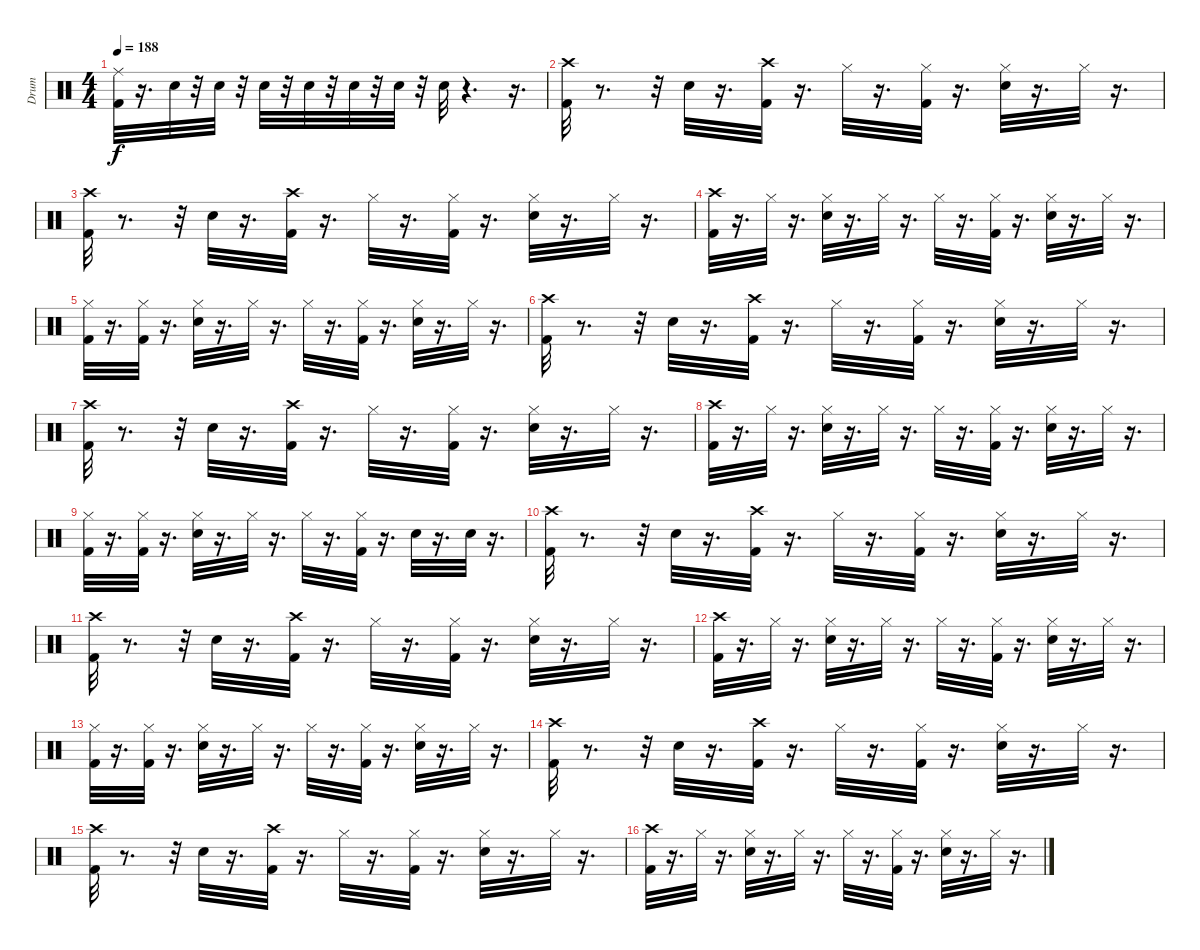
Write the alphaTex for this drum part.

\track ("Drum" "Drum") {instrument percussion}
\staff {score}
\articulation defaults
\ts (4 4)
\tempo 188
\clef neutral
\ks c
("Ride (middle)" "Kick (hit) 2").32{dy f} r.16{d} "Snare (hit) 2".32 r.32 "Snare (hit) 2".32 r.32 "Snare (hit) 2".32 r.32 "Snare (hit) 2".32 r.32 "Snare (hit) 2".32 r.32 "Snare (hit) 2".32 r.32 "Snare (hit) 2".32 r.4{d} r.16{d} |
("Crash high (hit)" "Kick (hit) 2").32 r.8{d} r.32 "Snare (hit) 2".32 r.16{d} ("Crash high (hit)" "Kick (hit) 2").32 r.16{d} "Hi-Hat (closed)".32 r.16{d} ("Hi-Hat (closed)" "Kick (hit) 2").32 r.16{d} ("Hi-Hat (closed)" "Snare (hit) 2").32 r.16{d} "Hi-Hat (closed)".32 r.16{d} |
("Crash high (hit)" "Kick (hit) 2").32 r.8{d} r.32 "Snare (hit) 2".32 r.16{d} ("Crash high (hit)" "Kick (hit) 2").32 r.16{d} "Hi-Hat (closed)".32 r.16{d} ("Hi-Hat (closed)" "Kick (hit) 2").32 r.16{d} ("Hi-Hat (closed)" "Snare (hit) 2").32 r.16{d} "Hi-Hat (closed)".32 r.16{d} |
("Crash high (hit)" "Kick (hit) 2").32 r.16{d} "Hi-Hat (closed)".32 r.16{d} ("Hi-Hat (closed)" "Snare (hit) 2").32 r.16{d} "Hi-Hat (closed)".32 r.16{d} "Hi-Hat (closed)".32 r.16{d} ("Hi-Hat (closed)" "Kick (hit) 2").32 r.16{d} ("Hi-Hat (closed)" "Snare (hit) 2").32 r.16{d} "Hi-Hat (closed)".32 r.16{d} |
("Hi-Hat (closed)" "Kick (hit) 2").32 r.16{d} ("Hi-Hat (closed)" "Kick (hit) 2").32 r.16{d} ("Hi-Hat (closed)" "Snare (hit) 2").32 r.16{d} "Hi-Hat (closed)".32 r.16{d} "Hi-Hat (closed)".32 r.16{d} ("Hi-Hat (closed)" "Kick (hit) 2").32 r.16{d} ("Hi-Hat (closed)" "Snare (hit) 2").32 r.16{d} "Hi-Hat (closed)".32 r.16{d} |
("Crash high (hit)" "Kick (hit) 2").32 r.8{d} r.32 "Snare (hit) 2".32 r.16{d} ("Crash high (hit)" "Kick (hit) 2").32 r.16{d} "Hi-Hat (closed)".32 r.16{d} ("Hi-Hat (closed)" "Kick (hit) 2").32 r.16{d} ("Hi-Hat (closed)" "Snare (hit) 2").32 r.16{d} "Hi-Hat (closed)".32 r.16{d} |
("Crash high (hit)" "Kick (hit) 2").32 r.8{d} r.32 "Snare (hit) 2".32 r.16{d} ("Crash high (hit)" "Kick (hit) 2").32 r.16{d} "Hi-Hat (closed)".32 r.16{d} ("Hi-Hat (closed)" "Kick (hit) 2").32 r.16{d} ("Hi-Hat (closed)" "Snare (hit) 2").32 r.16{d} "Hi-Hat (closed)".32 r.16{d} |
("Crash high (hit)" "Kick (hit) 2").32 r.16{d} "Hi-Hat (closed)".32 r.16{d} ("Hi-Hat (closed)" "Snare (hit) 2").32 r.16{d} "Hi-Hat (closed)".32 r.16{d} "Hi-Hat (closed)".32 r.16{d} ("Hi-Hat (closed)" "Kick (hit) 2").32 r.16{d} ("Hi-Hat (closed)" "Snare (hit) 2").32 r.16{d} "Hi-Hat (closed)".32 r.16{d} |
("Hi-Hat (closed)" "Kick (hit) 2").32 r.16{d} ("Hi-Hat (closed)" "Kick (hit) 2").32 r.16{d} ("Hi-Hat (closed)" "Snare (hit) 2").32 r.16{d} "Hi-Hat (closed)".32 r.16{d} "Hi-Hat (closed)".32 r.16{d} ("Hi-Hat (closed)" "Kick (hit) 2").32 r.16{d} "Snare (hit) 2".32 r.16{d} "Snare (hit) 2".32 r.16{d} |
("Crash high (hit)" "Kick (hit) 2").32 r.8{d} r.32 "Snare (hit) 2".32 r.16{d} ("Crash high (hit)" "Kick (hit) 2").32 r.16{d} "Hi-Hat (closed)".32 r.16{d} ("Hi-Hat (closed)" "Kick (hit) 2").32 r.16{d} ("Hi-Hat (closed)" "Snare (hit) 2").32 r.16{d} "Hi-Hat (closed)".32 r.16{d} |
("Crash high (hit)" "Kick (hit) 2").32 r.8{d} r.32 "Snare (hit) 2".32 r.16{d} ("Crash high (hit)" "Kick (hit) 2").32 r.16{d} "Hi-Hat (closed)".32 r.16{d} ("Hi-Hat (closed)" "Kick (hit) 2").32 r.16{d} ("Hi-Hat (closed)" "Snare (hit) 2").32 r.16{d} "Hi-Hat (closed)".32 r.16{d} |
("Crash high (hit)" "Kick (hit) 2").32 r.16{d} "Hi-Hat (closed)".32 r.16{d} ("Hi-Hat (closed)" "Snare (hit) 2").32 r.16{d} "Hi-Hat (closed)".32 r.16{d} "Hi-Hat (closed)".32 r.16{d} ("Hi-Hat (closed)" "Kick (hit) 2").32 r.16{d} ("Hi-Hat (closed)" "Snare (hit) 2").32 r.16{d} "Hi-Hat (closed)".32 r.16{d} |
("Hi-Hat (closed)" "Kick (hit) 2").32 r.16{d} ("Hi-Hat (closed)" "Kick (hit) 2").32 r.16{d} ("Hi-Hat (closed)" "Snare (hit) 2").32 r.16{d} "Hi-Hat (closed)".32 r.16{d} "Hi-Hat (closed)".32 r.16{d} ("Hi-Hat (closed)" "Kick (hit) 2").32 r.16{d} ("Hi-Hat (closed)" "Snare (hit) 2").32 r.16{d} "Hi-Hat (closed)".32 r.16{d} |
("Crash high (hit)" "Kick (hit) 2").32 r.8{d} r.32 "Snare (hit) 2".32 r.16{d} ("Crash high (hit)" "Kick (hit) 2").32 r.16{d} "Hi-Hat (closed)".32 r.16{d} ("Hi-Hat (closed)" "Kick (hit) 2").32 r.16{d} ("Hi-Hat (closed)" "Snare (hit) 2").32 r.16{d} "Hi-Hat (closed)".32 r.16{d} |
("Crash high (hit)" "Kick (hit) 2").32 r.8{d} r.32 "Snare (hit) 2".32 r.16{d} ("Crash high (hit)" "Kick (hit) 2").32 r.16{d} "Hi-Hat (closed)".32 r.16{d} ("Hi-Hat (closed)" "Kick (hit) 2").32 r.16{d} ("Hi-Hat (closed)" "Snare (hit) 2").32 r.16{d} "Hi-Hat (closed)".32 r.16{d} |
("Crash high (hit)" "Kick (hit) 2").32 r.16{d} "Hi-Hat (closed)".32 r.16{d} ("Hi-Hat (closed)" "Snare (hit) 2").32 r.16{d} "Hi-Hat (closed)".32 r.16{d} "Hi-Hat (closed)".32 r.16{d} ("Hi-Hat (closed)" "Kick (hit) 2").32 r.16{d} ("Hi-Hat (closed)" "Snare (hit) 2").32 r.16{d} "Hi-Hat (closed)".32 r.16{d}
